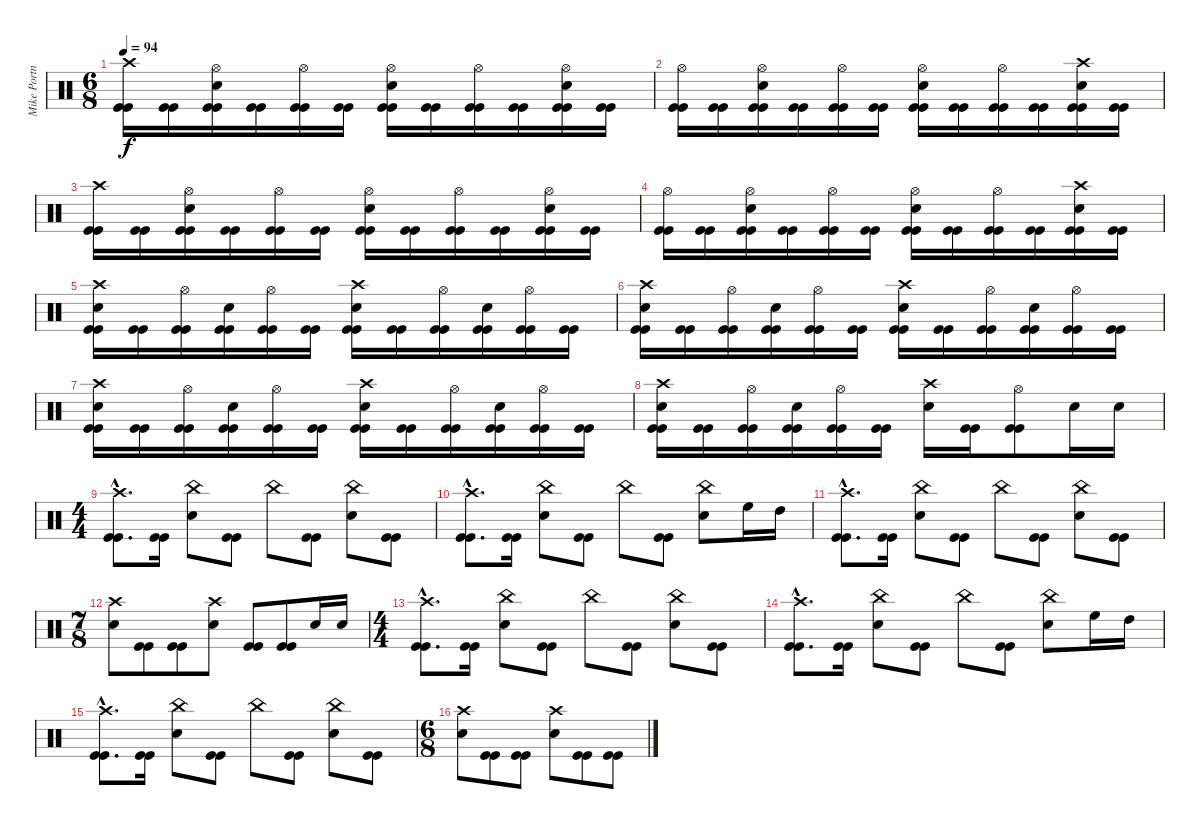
\track ("Mike Portnoy - Drum" "Mike Portn") {instrument percussion}
\staff {score}
\articulation defaults
\ts (6 8)
\tempo 94
\clef neutral
\ks c
("Crash high (hit)" "Kick (hit)" "Kick (hit)").16{dy f} ("Kick (hit)" "Kick (hit)").16 ("Hi-Hat (open)" "Snare (hit) 2" "Kick (hit)" "Kick (hit)").16 ("Kick (hit)" "Kick (hit)").16 ("Hi-Hat (open)" "Kick (hit)" "Kick (hit)").16 ("Kick (hit)" "Kick (hit)").16 ("Hi-Hat (open)" "Snare (hit) 2" "Kick (hit)" "Kick (hit)").16 ("Kick (hit)" "Kick (hit)").16 ("Hi-Hat (open)" "Kick (hit)" "Kick (hit)").16 ("Kick (hit)" "Kick (hit)").16 ("Hi-Hat (open)" "Snare (hit) 2" "Kick (hit)" "Kick (hit)").16 ("Kick (hit)" "Kick (hit)").16 |
("Hi-Hat (open)" "Kick (hit)" "Kick (hit)").16 ("Kick (hit)" "Kick (hit)").16 ("Hi-Hat (open)" "Snare (hit) 2" "Kick (hit)" "Kick (hit)").16 ("Kick (hit)" "Kick (hit)").16 ("Hi-Hat (open)" "Kick (hit)" "Kick (hit)").16 ("Kick (hit)" "Kick (hit)").16 ("Hi-Hat (open)" "Snare (hit) 2" "Kick (hit)" "Kick (hit)").16 ("Kick (hit)" "Kick (hit)").16 ("Hi-Hat (open)" "Kick (hit)" "Kick (hit)").16 ("Kick (hit)" "Kick (hit)").16 ("Crash high (hit)" "Snare (hit) 2" "Kick (hit)" "Kick (hit)").16 ("Kick (hit)" "Kick (hit)").16 |
("Crash high (hit)" "Kick (hit)" "Kick (hit)").16 ("Kick (hit)" "Kick (hit)").16 ("Hi-Hat (open)" "Snare (hit) 2" "Kick (hit)" "Kick (hit)").16 ("Kick (hit)" "Kick (hit)").16 ("Hi-Hat (open)" "Kick (hit)" "Kick (hit)").16 ("Kick (hit)" "Kick (hit)").16 ("Hi-Hat (open)" "Snare (hit) 2" "Kick (hit)" "Kick (hit)").16 ("Kick (hit)" "Kick (hit)").16 ("Hi-Hat (open)" "Kick (hit)" "Kick (hit)").16 ("Kick (hit)" "Kick (hit)").16 ("Hi-Hat (open)" "Snare (hit) 2" "Kick (hit)" "Kick (hit)").16 ("Kick (hit)" "Kick (hit)").16 |
("Hi-Hat (open)" "Kick (hit)" "Kick (hit)").16 ("Kick (hit)" "Kick (hit)").16 ("Hi-Hat (open)" "Snare (hit) 2" "Kick (hit)" "Kick (hit)").16 ("Kick (hit)" "Kick (hit)").16 ("Hi-Hat (open)" "Kick (hit)" "Kick (hit)").16 ("Kick (hit)" "Kick (hit)").16 ("Hi-Hat (open)" "Snare (hit) 2" "Kick (hit)" "Kick (hit)").16 ("Kick (hit)" "Kick (hit)").16 ("Hi-Hat (open)" "Kick (hit)" "Kick (hit)").16 ("Kick (hit)" "Kick (hit)").16 ("Crash high (hit)" "Snare (hit) 2" "Kick (hit)" "Kick (hit)").16 ("Kick (hit)" "Kick (hit)").16 |
("Crash high (hit)" "Snare (hit) 2" "Kick (hit)" "Kick (hit)").16 ("Kick (hit)" "Kick (hit)").16 ("Hi-Hat (open)" "Kick (hit)" "Kick (hit)").16 ("Snare (hit) 2" "Kick (hit)" "Kick (hit)").16 ("Hi-Hat (open)" "Kick (hit)" "Kick (hit)").16 ("Kick (hit)" "Kick (hit)").16 ("Crash high (hit)" "Snare (hit) 2" "Kick (hit)" "Kick (hit)").16 ("Kick (hit)" "Kick (hit)").16 ("Hi-Hat (open)" "Kick (hit)" "Kick (hit)").16 ("Snare (hit) 2" "Kick (hit)" "Kick (hit)").16 ("Hi-Hat (open)" "Kick (hit)" "Kick (hit)").16 ("Kick (hit)" "Kick (hit)").16 |
("Crash high (hit)" "Snare (hit) 2" "Kick (hit)" "Kick (hit)").16 ("Kick (hit)" "Kick (hit)").16 ("Hi-Hat (open)" "Kick (hit)" "Kick (hit)").16 ("Snare (hit) 2" "Kick (hit)" "Kick (hit)").16 ("Hi-Hat (open)" "Kick (hit)" "Kick (hit)").16 ("Kick (hit)" "Kick (hit)").16 ("Crash high (hit)" "Snare (hit) 2" "Kick (hit)" "Kick (hit)").16 ("Kick (hit)" "Kick (hit)").16 ("Hi-Hat (open)" "Kick (hit)" "Kick (hit)").16 ("Snare (hit) 2" "Kick (hit)" "Kick (hit)").16 ("Hi-Hat (open)" "Kick (hit)" "Kick (hit)").16 ("Kick (hit)" "Kick (hit)").16 |
("Crash high (hit)" "Snare (hit) 2" "Kick (hit)" "Kick (hit)").16 ("Kick (hit)" "Kick (hit)").16 ("Hi-Hat (open)" "Kick (hit)" "Kick (hit)").16 ("Snare (hit) 2" "Kick (hit)" "Kick (hit)").16 ("Hi-Hat (open)" "Kick (hit)" "Kick (hit)").16 ("Kick (hit)" "Kick (hit)").16 ("Crash high (hit)" "Snare (hit) 2" "Kick (hit)" "Kick (hit)").16 ("Kick (hit)" "Kick (hit)").16 ("Hi-Hat (open)" "Kick (hit)" "Kick (hit)").16 ("Snare (hit) 2" "Kick (hit)" "Kick (hit)").16 ("Hi-Hat (open)" "Kick (hit)" "Kick (hit)").16 ("Kick (hit)" "Kick (hit)").16 |
("Crash high (hit)" "Snare (hit) 2" "Kick (hit)" "Kick (hit)").16 ("Kick (hit)" "Kick (hit)").16 ("Hi-Hat (open)" "Kick (hit)" "Kick (hit)").16 ("Snare (hit) 2" "Kick (hit)" "Kick (hit)").16 ("Hi-Hat (open)" "Kick (hit)" "Kick (hit)").16 ("Kick (hit)" "Kick (hit)").16 ("Crash high (hit)" "Snare (hit) 2").16 ("Kick (hit)" "Kick (hit)").16 ("Hi-Hat (open)" "Kick (hit)" "Kick (hit)").8 "Snare (hit) 2".16 "Snare (hit) 2".16 |
\ts (4 4)
("Crash high (hit)"{hac} "Kick (hit)"{hac} "Kick (hit)"{hac}).8{d} ("Kick (hit)" "Kick (hit)").16 ("China (hit)" "Snare (hit) 2").8 ("Kick (hit)" "Kick (hit)").8 "China (hit)".8 ("Kick (hit)" "Kick (hit)").8 ("China (hit)" "Snare (hit) 2").8 ("Kick (hit)" "Kick (hit)").8 |
("Crash high (hit)"{hac} "Kick (hit)"{hac} "Kick (hit)"{hac}).8{d} ("Kick (hit)" "Kick (hit)").16 ("China (hit)" "Snare (hit) 2").8 ("Kick (hit)" "Kick (hit)").8 "China (hit)".8 ("Kick (hit)" "Kick (hit)").8 ("China (hit)" "Snare (hit) 2").8 "High Floor Tom (hit)".16 "High Tom (hit)".16 |
("Crash high (hit)"{hac} "Kick (hit)"{hac} "Kick (hit)"{hac}).8{d} ("Kick (hit)" "Kick (hit)").16 ("China (hit)" "Snare (hit) 2").8 ("Kick (hit)" "Kick (hit)").8 "China (hit)".8 ("Kick (hit)" "Kick (hit)").8 ("China (hit)" "Snare (hit) 2").8 ("Kick (hit)" "Kick (hit)").8 |
\ts (7 8)
("Crash high (hit)" "Snare (hit) 2").8 ("Kick (hit)" "Kick (hit)").8 ("Kick (hit)" "Kick (hit)").8 ("Crash high (hit)" "Snare (hit) 2").8 ("Kick (hit)" "Kick (hit)").8 ("Kick (hit)" "Kick (hit)").8 "Snare (hit) 2".16 "Snare (hit) 2".16 |
\ts (4 4)
("Crash high (hit)"{hac} "Kick (hit)"{hac} "Kick (hit)"{hac}).8{d} ("Kick (hit)" "Kick (hit)").16 ("China (hit)" "Snare (hit) 2").8 ("Kick (hit)" "Kick (hit)").8 "China (hit)".8 ("Kick (hit)" "Kick (hit)").8 ("China (hit)" "Snare (hit) 2").8 ("Kick (hit)" "Kick (hit)").8 |
("Crash high (hit)"{hac} "Kick (hit)"{hac} "Kick (hit)"{hac}).8{d} ("Kick (hit)" "Kick (hit)").16 ("China (hit)" "Snare (hit) 2").8 ("Kick (hit)" "Kick (hit)").8 "China (hit)".8 ("Kick (hit)" "Kick (hit)").8 ("China (hit)" "Snare (hit) 2").8 "High Floor Tom (hit)".16 "High Tom (hit)".16 |
("Crash high (hit)"{hac} "Kick (hit)"{hac} "Kick (hit)"{hac}).8{d} ("Kick (hit)" "Kick (hit)").16 ("China (hit)" "Snare (hit) 2").8 ("Kick (hit)" "Kick (hit)").8 "China (hit)".8 ("Kick (hit)" "Kick (hit)").8 ("China (hit)" "Snare (hit) 2").8 ("Kick (hit)" "Kick (hit)").8 |
\ts (6 8)
("Crash high (hit)" "Snare (hit) 2").8 ("Kick (hit)" "Kick (hit)").8 ("Kick (hit)" "Kick (hit)").8 ("Crash high (hit)" "Snare (hit) 2").8 ("Kick (hit)" "Kick (hit)").8 ("Kick (hit)" "Kick (hit)").8
